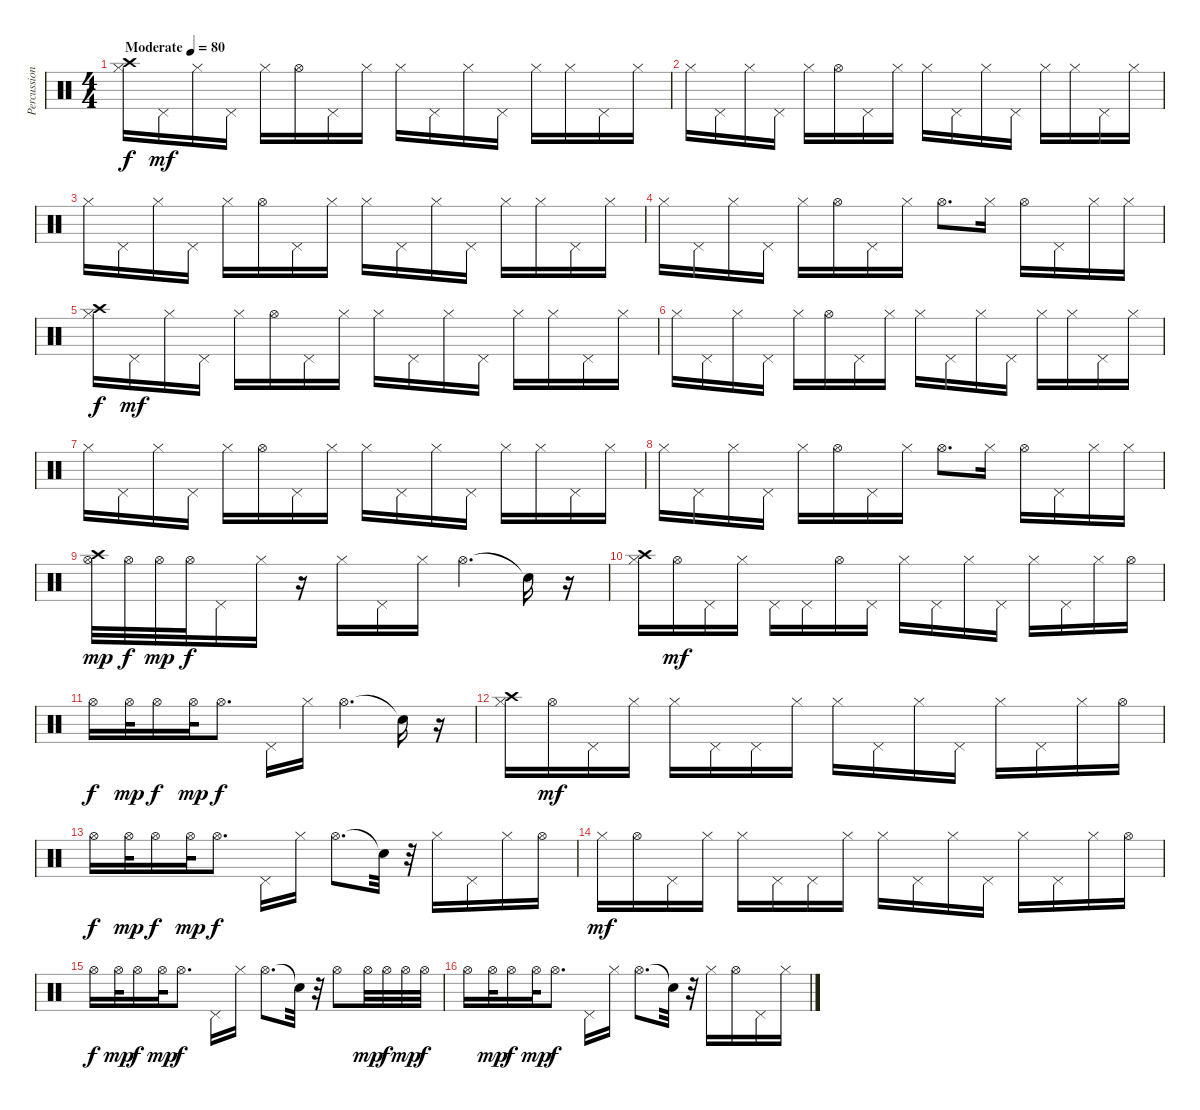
\track ("Percussion" "Percussion") {instrument percussion}
\staff {score}
\articulation defaults
\ts (4 4)
\tempo (80 "Moderate")
\clef neutral
\ks c
("Hi-Hat (closed)" "Crash high (hit)").16{dy f} "Pedal Hi-Hat (hit)".16{dy mf} "Hi-Hat (closed)".16 "Pedal Hi-Hat (hit)".16 "Hi-Hat (closed)".16 "Hi-Hat (open)".16 "Pedal Hi-Hat (hit)".16 "Hi-Hat (closed)".16 "Hi-Hat (closed)".16 "Pedal Hi-Hat (hit)".16 "Hi-Hat (closed)".16 "Pedal Hi-Hat (hit)".16 "Hi-Hat (closed)".16 "Hi-Hat (closed)".16 "Pedal Hi-Hat (hit)".16 "Hi-Hat (closed)".16 |
"Hi-Hat (closed)".16 "Pedal Hi-Hat (hit)".16 "Hi-Hat (closed)".16 "Pedal Hi-Hat (hit)".16 "Hi-Hat (closed)".16 "Hi-Hat (open)".16 "Pedal Hi-Hat (hit)".16 "Hi-Hat (closed)".16 "Hi-Hat (closed)".16 "Pedal Hi-Hat (hit)".16 "Hi-Hat (closed)".16 "Pedal Hi-Hat (hit)".16 "Hi-Hat (closed)".16 "Hi-Hat (closed)".16 "Pedal Hi-Hat (hit)".16 "Hi-Hat (closed)".16 |
"Hi-Hat (closed)".16 "Pedal Hi-Hat (hit)".16 "Hi-Hat (closed)".16 "Pedal Hi-Hat (hit)".16 "Hi-Hat (closed)".16 "Hi-Hat (open)".16 "Pedal Hi-Hat (hit)".16 "Hi-Hat (closed)".16 "Hi-Hat (closed)".16 "Pedal Hi-Hat (hit)".16 "Hi-Hat (closed)".16 "Pedal Hi-Hat (hit)".16 "Hi-Hat (closed)".16 "Hi-Hat (closed)".16 "Pedal Hi-Hat (hit)".16 "Hi-Hat (closed)".16 |
"Hi-Hat (closed)".16 "Pedal Hi-Hat (hit)".16 "Hi-Hat (closed)".16 "Pedal Hi-Hat (hit)".16 "Hi-Hat (closed)".16 "Hi-Hat (open)".16 "Pedal Hi-Hat (hit)".16 "Hi-Hat (closed)".16 "Hi-Hat (open)".8{d} "Hi-Hat (closed)".16 "Hi-Hat (open)".16 "Pedal Hi-Hat (hit)".16 "Hi-Hat (closed)".16 "Hi-Hat (closed)".16 |
("Hi-Hat (closed)" "Crash high (hit)").16{dy f} "Pedal Hi-Hat (hit)".16{dy mf} "Hi-Hat (closed)".16 "Pedal Hi-Hat (hit)".16 "Hi-Hat (closed)".16 "Hi-Hat (open)".16 "Pedal Hi-Hat (hit)".16 "Hi-Hat (closed)".16 "Hi-Hat (closed)".16 "Pedal Hi-Hat (hit)".16 "Hi-Hat (closed)".16 "Pedal Hi-Hat (hit)".16 "Hi-Hat (closed)".16 "Hi-Hat (closed)".16 "Pedal Hi-Hat (hit)".16 "Hi-Hat (closed)".16 |
"Hi-Hat (closed)".16 "Pedal Hi-Hat (hit)".16 "Hi-Hat (closed)".16 "Pedal Hi-Hat (hit)".16 "Hi-Hat (closed)".16 "Hi-Hat (open)".16 "Pedal Hi-Hat (hit)".16 "Hi-Hat (closed)".16 "Hi-Hat (closed)".16 "Pedal Hi-Hat (hit)".16 "Hi-Hat (closed)".16 "Pedal Hi-Hat (hit)".16 "Hi-Hat (closed)".16 "Hi-Hat (closed)".16 "Pedal Hi-Hat (hit)".16 "Hi-Hat (closed)".16 |
"Hi-Hat (closed)".16 "Pedal Hi-Hat (hit)".16 "Hi-Hat (closed)".16 "Pedal Hi-Hat (hit)".16 "Hi-Hat (closed)".16 "Hi-Hat (open)".16 "Pedal Hi-Hat (hit)".16 "Hi-Hat (closed)".16 "Hi-Hat (closed)".16 "Pedal Hi-Hat (hit)".16 "Hi-Hat (closed)".16 "Pedal Hi-Hat (hit)".16 "Hi-Hat (closed)".16 "Hi-Hat (closed)".16 "Pedal Hi-Hat (hit)".16 "Hi-Hat (closed)".16 |
"Hi-Hat (closed)".16 "Pedal Hi-Hat (hit)".16 "Hi-Hat (closed)".16 "Pedal Hi-Hat (hit)".16 "Hi-Hat (closed)".16 "Hi-Hat (open)".16 "Pedal Hi-Hat (hit)".16 "Hi-Hat (closed)".16 "Hi-Hat (open)".8{d} "Hi-Hat (closed)".16 "Hi-Hat (open)".16 "Pedal Hi-Hat (hit)".16 "Hi-Hat (closed)".16 "Hi-Hat (closed)".16 |
("Hi-Hat (open)" "Crash high (hit)").32{dy mp} "Hi-Hat (open)".32{dy f} "Hi-Hat (open)".32{dy mp} "Hi-Hat (open)".32{dy f} "Pedal Hi-Hat (hit)".16 "Hi-Hat (closed)".16 r.16 "Hi-Hat (closed)".16 "Pedal Hi-Hat (hit)".16 "Hi-Hat (closed)".16 "Hi-Hat (open)".4{d} "Snare (hit)"{t}.16 r.16 |
("Hi-Hat (closed)" "Crash high (hit)").16 "Hi-Hat (open)".16{dy mf} "Pedal Hi-Hat (hit)".16 "Hi-Hat (closed)".16 "Pedal Hi-Hat (hit)".16 "Pedal Hi-Hat (hit)".16 "Hi-Hat (open)".16 "Pedal Hi-Hat (hit)".16 "Hi-Hat (closed)".16 "Pedal Hi-Hat (hit)".16 "Hi-Hat (closed)".16 "Pedal Hi-Hat (hit)".16 "Hi-Hat (closed)".16 "Pedal Hi-Hat (hit)".16 "Hi-Hat (closed)".16 "Hi-Hat (open)".16 |
"Hi-Hat (open)".16{dy f} "Hi-Hat (open)".32{dy mp} "Hi-Hat (open)".16{dy f} "Hi-Hat (open)".32{dy mp} "Hi-Hat (open)".8{d dy f} "Pedal Hi-Hat (hit)".16 "Hi-Hat (closed)".16 "Hi-Hat (open)".4{d} "Snare (hit)"{t}.16 r.16 |
("Hi-Hat (closed)" "Crash high (hit)").16 "Hi-Hat (open)".16{dy mf} "Pedal Hi-Hat (hit)".16 "Hi-Hat (closed)".16 "Hi-Hat (closed)".16 "Pedal Hi-Hat (hit)".16 "Pedal Hi-Hat (hit)".16 "Hi-Hat (closed)".16 "Hi-Hat (closed)".16 "Pedal Hi-Hat (hit)".16 "Hi-Hat (closed)".16 "Pedal Hi-Hat (hit)".16 "Hi-Hat (closed)".16 "Pedal Hi-Hat (hit)".16 "Hi-Hat (closed)".16 "Hi-Hat (open)".16 |
"Hi-Hat (open)".16{dy f} "Hi-Hat (open)".32{dy mp} "Hi-Hat (open)".16{dy f} "Hi-Hat (open)".32{dy mp} "Hi-Hat (open)".8{d dy f} "Pedal Hi-Hat (hit)".16 "Hi-Hat (closed)".16 "Hi-Hat (open)".8{d} "Snare (hit)"{t}.32 r.32 "Hi-Hat (closed)".16 "Pedal Hi-Hat (hit)".16 "Hi-Hat (closed)".16 "Hi-Hat (open)".16 |
"Hi-Hat (closed)".16{dy mf} "Hi-Hat (open)".16 "Pedal Hi-Hat (hit)".16 "Hi-Hat (closed)".16 "Hi-Hat (closed)".16 "Pedal Hi-Hat (hit)".16 "Pedal Hi-Hat (hit)".16 "Hi-Hat (closed)".16 "Hi-Hat (closed)".16 "Pedal Hi-Hat (hit)".16 "Hi-Hat (closed)".16 "Pedal Hi-Hat (hit)".16 "Hi-Hat (closed)".16 "Pedal Hi-Hat (hit)".16 "Hi-Hat (closed)".16 "Hi-Hat (open)".16 |
"Hi-Hat (open)".16{dy f} "Hi-Hat (open)".32{dy mp} "Hi-Hat (open)".16{dy f} "Hi-Hat (open)".32{dy mp} "Hi-Hat (open)".8{d dy f} "Pedal Hi-Hat (hit)".16 "Hi-Hat (closed)".16 "Hi-Hat (open)".8{d} "Snare (hit)"{t}.32 r.32 "Hi-Hat (open)".8 "Hi-Hat (open)".32{dy mp} "Hi-Hat (open)".32{dy f} "Hi-Hat (open)".32{dy mp} "Hi-Hat (open)".32{dy f} |
"Hi-Hat (open)".16 "Hi-Hat (open)".32{dy mp} "Hi-Hat (open)".16{dy f} "Hi-Hat (open)".32{dy mp} "Hi-Hat (open)".8{d dy f} "Pedal Hi-Hat (hit)".16 "Hi-Hat (closed)".16 "Hi-Hat (open)".8{d} "Snare (hit)"{t}.32 r.32 "Hi-Hat (closed)".16 "Hi-Hat (open)".16 "Pedal Hi-Hat (hit)".16 "Hi-Hat (closed)".16
